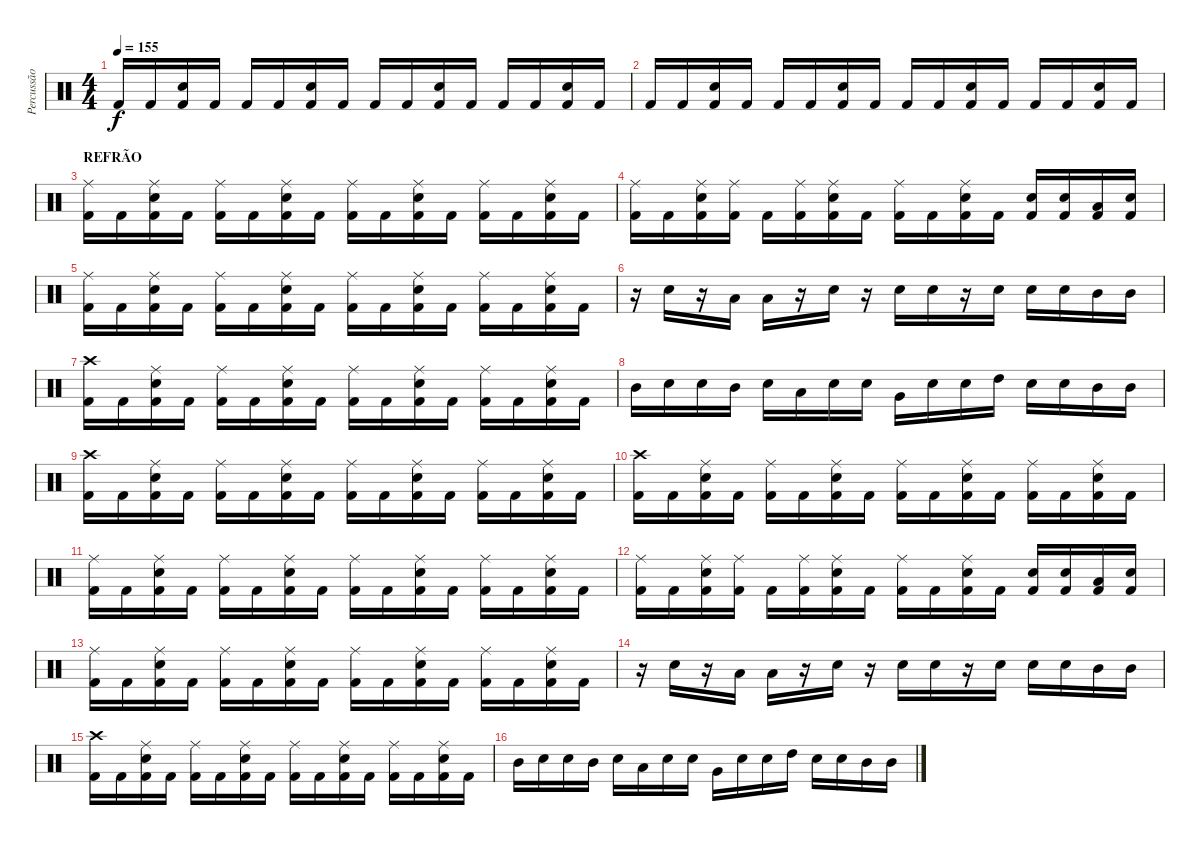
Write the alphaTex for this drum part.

\track ("Percussão" "Percussão") {instrument percussion}
\staff {score}
\articulation defaults
\ts (4 4)
\tempo 155
\clef neutral
\ks c "Kick (hit) 2".16{dy f} "Kick (hit) 2".16
("Kick (hit) 2" "Snare (hit) 2").16 "Kick (hit) 2".16 "Kick (hit) 2".16 "Kick (hit) 2".16 ("Kick (hit) 2" "Snare (hit) 2").16 "Kick (hit) 2".16 "Kick (hit) 2".16 "Kick (hit) 2".16 ("Kick (hit) 2" "Snare (hit) 2").16 "Kick (hit) 2".16 "Kick (hit) 2".16 "Kick (hit) 2".16 ("Kick (hit) 2" "Snare (hit) 2").16 "Kick (hit) 2".16 |
"Kick (hit) 2".16 "Kick (hit) 2".16 ("Kick (hit) 2" "Snare (hit) 2").16 "Kick (hit) 2".16 "Kick (hit) 2".16 "Kick (hit) 2".16 ("Kick (hit) 2" "Snare (hit) 2").16 "Kick (hit) 2".16 "Kick (hit) 2".16 "Kick (hit) 2".16 ("Kick (hit) 2" "Snare (hit) 2").16 "Kick (hit) 2".16 "Kick (hit) 2".16 "Kick (hit) 2".16 ("Kick (hit) 2" "Snare (hit) 2").16 "Kick (hit) 2".16 |
\section ("" "REFRÃO")
("Kick (hit) 2" "Ride (middle)").16 "Kick (hit) 2".16 ("Kick (hit) 2" "Snare (hit) 2" "Ride (middle)").16 "Kick (hit) 2".16 ("Kick (hit) 2" "Ride (middle)").16 "Kick (hit) 2".16 ("Kick (hit) 2" "Snare (hit) 2" "Ride (middle)").16 "Kick (hit) 2".16 ("Kick (hit) 2" "Ride (middle)").16 "Kick (hit) 2".16 ("Kick (hit) 2" "Snare (hit) 2" "Ride (middle)").16 "Kick (hit) 2".16 ("Kick (hit) 2" "Ride (middle)").16 "Kick (hit) 2".16 ("Kick (hit) 2" "Snare (hit) 2" "Ride (middle)").16 "Kick (hit) 2".16 |
("Kick (hit) 2" "Ride (middle)").16 "Kick (hit) 2".16 ("Kick (hit) 2" "Snare (hit) 2" "Ride (middle)").16 ("Kick (hit) 2" "Ride (middle)").16 "Kick (hit) 2".16 ("Kick (hit) 2" "Ride (middle)").16 ("Kick (hit) 2" "Snare (hit) 2" "Ride (middle)").16 "Kick (hit) 2".16 ("Kick (hit) 2" "Ride (middle)").16 "Kick (hit) 2".16 ("Kick (hit) 2" "Snare (hit) 2" "Ride (middle)").16 "Kick (hit) 2".16 ("Kick (hit) 2" "Snare (hit) 2").16 ("Kick (hit) 2" "Snare (hit) 2").16 ("Kick (hit) 2" "Low Tom (hit)").16 ("Kick (hit) 2" "Snare (hit)").16 |
("Kick (hit) 2" "Ride (middle)").16 "Kick (hit) 2".16 ("Kick (hit) 2" "Snare (hit) 2" "Ride (middle)").16 "Kick (hit) 2".16 ("Kick (hit) 2" "Ride (middle)").16 "Kick (hit) 2".16 ("Kick (hit) 2" "Snare (hit) 2" "Ride (middle)").16 "Kick (hit) 2".16 ("Kick (hit) 2" "Ride (middle)").16 "Kick (hit) 2".16 ("Kick (hit) 2" "Snare (hit) 2" "Ride (middle)").16 "Kick (hit) 2".16 ("Kick (hit) 2" "Ride (middle)").16 "Kick (hit) 2".16 ("Kick (hit) 2" "Snare (hit) 2" "Ride (middle)").16 "Kick (hit) 2".16 |
r.16 "Snare (hit) 2".16 r.16 "Low Tom (hit)".16 "Low Tom (hit)".16 r.16 "Snare (hit) 2".16 r.16 "Snare (hit) 2".16 "Snare (hit) 2".16 r.16 "Snare (hit) 2".16 "Snare (hit) 2".16 "Snare (hit) 2".16 "Mid Tom (hit)".16 "Mid Tom (hit)".16 |
("Kick (hit) 2" "Crash high (hit)").16 "Kick (hit) 2".16 ("Kick (hit) 2" "Snare (hit) 2" "Ride (middle)").16 "Kick (hit) 2".16 ("Kick (hit) 2" "Ride (middle)").16 "Kick (hit) 2".16 ("Kick (hit) 2" "Snare (hit) 2" "Ride (middle)").16 "Kick (hit) 2".16 ("Kick (hit) 2" "Ride (middle)").16 "Kick (hit) 2".16 ("Kick (hit) 2" "Snare (hit) 2" "Ride (middle)").16 "Kick (hit) 2".16 ("Kick (hit) 2" "Ride (middle)").16 "Kick (hit) 2".16 ("Kick (hit) 2" "Snare (hit) 2" "Ride (middle)").16 "Kick (hit) 2".16 |
"Mid Tom (hit)".16 "Snare (hit) 2".16 "Snare (hit) 2".16 "Mid Tom (hit)".16 "Snare (hit) 2".16 "Low Tom (hit)".16 "Snare (hit) 2".16 "Snare (hit) 2".16 "Very Low Tom (hit)".16 "Snare (hit) 2".16 "Snare (hit) 2".16 "High Tom (hit)".16 "Snare (hit) 2".16 "Snare (hit) 2".16 "Mid Tom (hit)".16 "Mid Tom (hit)".16 |
("Kick (hit) 2" "Crash high (hit)").16 "Kick (hit) 2".16 ("Kick (hit) 2" "Snare (hit) 2" "Ride (middle)").16 "Kick (hit) 2".16 ("Kick (hit) 2" "Ride (middle)").16 "Kick (hit) 2".16 ("Kick (hit) 2" "Snare (hit) 2" "Ride (middle)").16 "Kick (hit) 2".16 ("Kick (hit) 2" "Ride (middle)").16 "Kick (hit) 2".16 ("Kick (hit) 2" "Snare (hit) 2" "Ride (middle)").16 "Kick (hit) 2".16 ("Kick (hit) 2" "Ride (middle)").16 "Kick (hit) 2".16 ("Kick (hit) 2" "Snare (hit) 2" "Ride (middle)").16 "Kick (hit) 2".16 |
("Kick (hit) 2" "Crash high (hit)").16 "Kick (hit) 2".16 ("Kick (hit) 2" "Snare (hit) 2" "Ride (middle)").16 "Kick (hit) 2".16 ("Kick (hit) 2" "Ride (middle)").16 "Kick (hit) 2".16 ("Kick (hit) 2" "Snare (hit) 2" "Ride (middle)").16 "Kick (hit) 2".16 ("Kick (hit) 2" "Ride (middle)").16 "Kick (hit) 2".16 ("Kick (hit) 2" "Snare (hit) 2" "Ride (middle)").16 "Kick (hit) 2".16 ("Kick (hit) 2" "Ride (middle)").16 "Kick (hit) 2".16 ("Kick (hit) 2" "Snare (hit) 2" "Ride (middle)").16 "Kick (hit) 2".16 |
("Kick (hit) 2" "Ride (middle)").16 "Kick (hit) 2".16 ("Kick (hit) 2" "Snare (hit) 2" "Ride (middle)").16 "Kick (hit) 2".16 ("Kick (hit) 2" "Ride (middle)").16 "Kick (hit) 2".16 ("Kick (hit) 2" "Snare (hit) 2" "Ride (middle)").16 "Kick (hit) 2".16 ("Kick (hit) 2" "Ride (middle)").16 "Kick (hit) 2".16 ("Kick (hit) 2" "Snare (hit) 2" "Ride (middle)").16 "Kick (hit) 2".16 ("Kick (hit) 2" "Ride (middle)").16 "Kick (hit) 2".16 ("Kick (hit) 2" "Snare (hit) 2" "Ride (middle)").16 "Kick (hit) 2".16 |
("Kick (hit) 2" "Ride (middle)").16 "Kick (hit) 2".16 ("Kick (hit) 2" "Snare (hit) 2" "Ride (middle)").16 ("Kick (hit) 2" "Ride (middle)").16 "Kick (hit) 2".16 ("Kick (hit) 2" "Ride (middle)").16 ("Kick (hit) 2" "Snare (hit) 2" "Ride (middle)").16 "Kick (hit) 2".16 ("Kick (hit) 2" "Ride (middle)").16 "Kick (hit) 2".16 ("Kick (hit) 2" "Snare (hit) 2" "Ride (middle)").16 "Kick (hit) 2".16 ("Kick (hit) 2" "Snare (hit) 2").16 ("Kick (hit) 2" "Snare (hit) 2").16 ("Kick (hit) 2" "Low Tom (hit)").16 ("Kick (hit) 2" "Snare (hit)").16 |
("Kick (hit) 2" "Ride (middle)").16 "Kick (hit) 2".16 ("Kick (hit) 2" "Snare (hit) 2" "Ride (middle)").16 "Kick (hit) 2".16 ("Kick (hit) 2" "Ride (middle)").16 "Kick (hit) 2".16 ("Kick (hit) 2" "Snare (hit) 2" "Ride (middle)").16 "Kick (hit) 2".16 ("Kick (hit) 2" "Ride (middle)").16 "Kick (hit) 2".16 ("Kick (hit) 2" "Snare (hit) 2" "Ride (middle)").16 "Kick (hit) 2".16 ("Kick (hit) 2" "Ride (middle)").16 "Kick (hit) 2".16 ("Kick (hit) 2" "Snare (hit) 2" "Ride (middle)").16 "Kick (hit) 2".16 |
r.16 "Snare (hit) 2".16 r.16 "Low Tom (hit)".16 "Low Tom (hit)".16 r.16 "Snare (hit) 2".16 r.16 "Snare (hit) 2".16 "Snare (hit) 2".16 r.16 "Snare (hit) 2".16 "Snare (hit) 2".16 "Snare (hit) 2".16 "Mid Tom (hit)".16 "Mid Tom (hit)".16 |
("Kick (hit) 2" "Crash high (hit)").16 "Kick (hit) 2".16 ("Kick (hit) 2" "Snare (hit) 2" "Ride (middle)").16 "Kick (hit) 2".16 ("Kick (hit) 2" "Ride (middle)").16 "Kick (hit) 2".16 ("Kick (hit) 2" "Snare (hit) 2" "Ride (middle)").16 "Kick (hit) 2".16 ("Kick (hit) 2" "Ride (middle)").16 "Kick (hit) 2".16 ("Kick (hit) 2" "Snare (hit) 2" "Ride (middle)").16 "Kick (hit) 2".16 ("Kick (hit) 2" "Ride (middle)").16 "Kick (hit) 2".16 ("Kick (hit) 2" "Snare (hit) 2" "Ride (middle)").16 "Kick (hit) 2".16 |
"Mid Tom (hit)".16 "Snare (hit) 2".16 "Snare (hit) 2".16 "Mid Tom (hit)".16 "Snare (hit) 2".16 "Low Tom (hit)".16 "Snare (hit) 2".16 "Snare (hit) 2".16 "Very Low Tom (hit)".16 "Snare (hit) 2".16 "Snare (hit) 2".16 "High Tom (hit)".16 "Snare (hit) 2".16 "Snare (hit) 2".16 "Mid Tom (hit)".16 "Mid Tom (hit)".16
